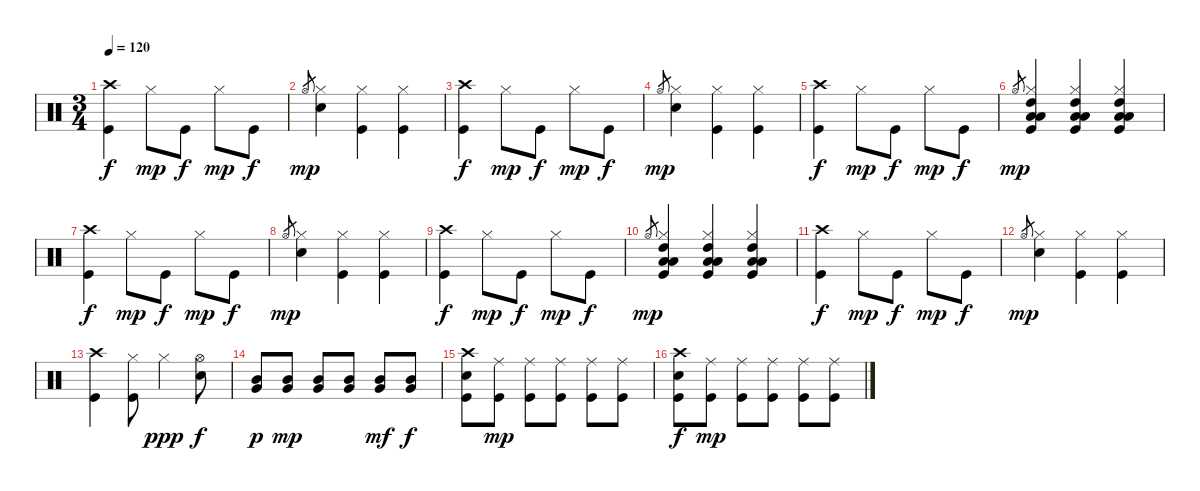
\track "" {instrument percussion}
\staff {score}
\articulation defaults
\ts (3 4)
\tempo 120
\clef neutral
\ks c
("Crash high (hit)" "Kick (hit)").4{dy f} "Hi-Hat (closed)".8{dy mp} "Kick (hit)".8{dy f} "Hi-Hat (closed)".8{dy mp} "Kick (hit)".8{dy f} |
"Hi-Hat (open)".8{gr dy mp} ("Hi-Hat (closed)" "Electric Snare (hit)").4 ("Hi-Hat (closed)" "Kick (hit)").4 ("Hi-Hat (closed)" "Kick (hit)").4 |
("Crash high (hit)" "Kick (hit)").4{dy f} "Hi-Hat (closed)".8{dy mp} "Kick (hit)".8{dy f} "Hi-Hat (closed)".8{dy mp} "Kick (hit)".8{dy f} |
"Hi-Hat (open)".8{gr dy mp} ("Hi-Hat (closed)" "Electric Snare (hit)").4 ("Hi-Hat (closed)" "Kick (hit)").4 ("Hi-Hat (closed)" "Kick (hit)").4 |
("Crash high (hit)" "Kick (hit)").4{dy f} "Hi-Hat (closed)".8{dy mp} "Kick (hit)".8{dy f} "Hi-Hat (closed)".8{dy mp} "Kick (hit)".8{dy f} |
"Hi-Hat (open)".8{gr dy mp} ("Hi-Hat (closed)" "High Tom (hit)" "Low Floor Tom (hit)" "Low Tom (hit)" "Kick (hit)").4 ("Hi-Hat (closed)" "High Tom (hit)" "Low Floor Tom (hit)" "Low Tom (hit)" "Kick (hit)").4 ("Hi-Hat (closed)" "High Tom (hit)" "Low Floor Tom (hit)" "Low Tom (hit)" "Kick (hit)").4 |
("Crash high (hit)" "Kick (hit)").4{dy f} "Hi-Hat (closed)".8{dy mp} "Kick (hit)".8{dy f} "Hi-Hat (closed)".8{dy mp} "Kick (hit)".8{dy f} |
"Hi-Hat (open)".8{gr dy mp} ("Hi-Hat (closed)" "Electric Snare (hit)").4 ("Hi-Hat (closed)" "Kick (hit)").4 ("Hi-Hat (closed)" "Kick (hit)").4 |
("Crash high (hit)" "Kick (hit)").4{dy f} "Hi-Hat (closed)".8{dy mp} "Kick (hit)".8{dy f} "Hi-Hat (closed)".8{dy mp} "Kick (hit)".8{dy f} |
"Hi-Hat (open)".8{gr dy mp} ("Hi-Hat (closed)" "High Tom (hit)" "Low Floor Tom (hit)" "Low Tom (hit)" "Kick (hit)").4 ("Hi-Hat (closed)" "High Tom (hit)" "Low Floor Tom (hit)" "Low Tom (hit)" "Kick (hit)").4 ("Hi-Hat (closed)" "High Tom (hit)" "Low Floor Tom (hit)" "Low Tom (hit)" "Kick (hit)").4 |
("Crash high (hit)" "Kick (hit)").4{dy f} "Hi-Hat (closed)".8{dy mp} "Kick (hit)".8{dy f} "Hi-Hat (closed)".8{dy mp} "Kick (hit)".8{dy f} |
"Hi-Hat (open)".8{gr dy mp} ("Hi-Hat (closed)" "Electric Snare (hit)").4 ("Hi-Hat (closed)" "Kick (hit)").4 ("Hi-Hat (closed)" "Kick (hit)").4 |
("Crash high (hit)" "Kick (hit)").4 ("Kick (hit)" "Hi-Hat (closed)").8 "Hi-Hat (closed)".4{dy ppp} ("Hi-Hat (open)" "Electric Snare (hit)").8{dy f} |
("Mid Tom (hit)" "Very Low Tom (hit)").8{dy p} ("Mid Tom (hit)" "Very Low Tom (hit)").8{dy mp} ("Mid Tom (hit)" "Very Low Tom (hit)").8 ("Mid Tom (hit)" "Very Low Tom (hit)").8 ("Mid Tom (hit)" "Very Low Tom (hit)").8{dy mf} ("Mid Tom (hit)" "Very Low Tom (hit)").8{dy f} |
("Kick (hit)" "Electric Snare (hit)" "Crash high (hit)").8 ("Kick (hit)" "Ride (middle)").8{dy mp} ("Kick (hit)" "Ride (middle)").8 ("Kick (hit)" "Ride (middle)").8 ("Kick (hit)" "Ride (middle)").8 ("Kick (hit)" "Ride (middle)").8 |
("Kick (hit)" "Electric Snare (hit)" "Crash high (hit)").8{dy f} ("Kick (hit)" "Ride (middle)").8{dy mp} ("Kick (hit)" "Ride (middle)").8 ("Kick (hit)" "Ride (middle)").8 ("Kick (hit)" "Ride (middle)").8 ("Kick (hit)" "Ride (middle)").8
